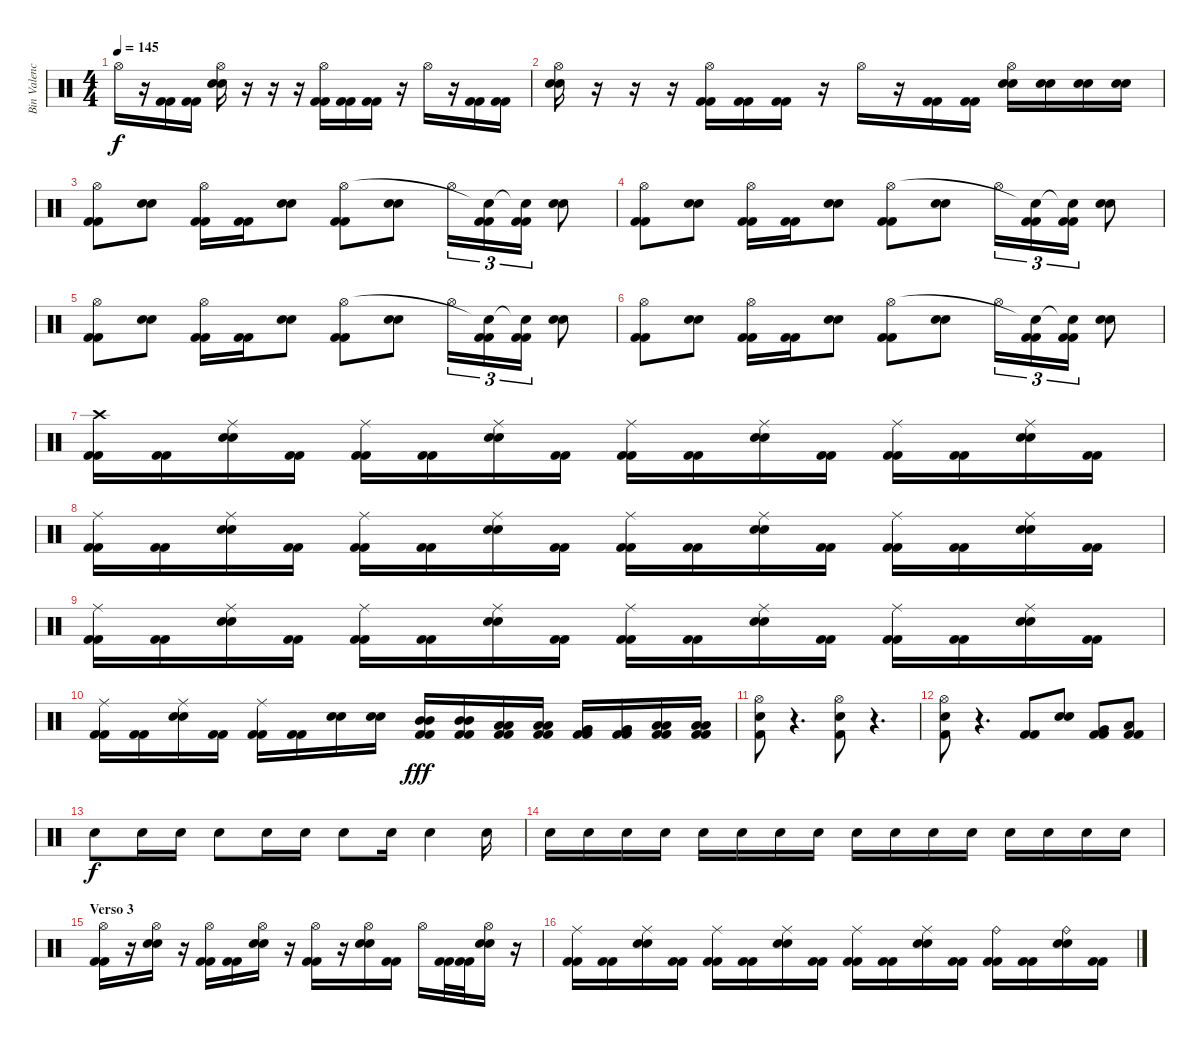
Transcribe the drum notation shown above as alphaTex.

\track ("Bin Valencia (Bateria)" "Bin Valenc") {instrument percussion}
\staff {score}
\articulation defaults
\ts (4 4)
\tempo 145
\clef neutral
\ks c "Hi-Hat (open)".16{dy f}
r.16 ("Kick (hit) 2" "Kick (hit) 2").16 ("Kick (hit) 2" "Kick (hit) 2").16 ("Snare (hit) 2" "Snare (hit) 2" "Hi-Hat (open)").16 r.16 r.16 r.16 ("Kick (hit) 2" "Kick (hit) 2" "Hi-Hat (open)").16 ("Kick (hit) 2" "Kick (hit) 2").16 ("Kick (hit) 2" "Kick (hit) 2").16 r.16 "Hi-Hat (open)".16 r.16 ("Kick (hit) 2" "Kick (hit) 2").16 ("Kick (hit) 2" "Kick (hit) 2").16 |
("Snare (hit) 2" "Snare (hit) 2" "Hi-Hat (open)").16 r.16 r.16 r.16 ("Kick (hit) 2" "Kick (hit) 2" "Hi-Hat (open)").16 ("Kick (hit) 2" "Kick (hit) 2").16 ("Kick (hit) 2" "Kick (hit) 2").16 r.16 "Hi-Hat (open)".16 r.16 ("Kick (hit) 2" "Kick (hit) 2").16 ("Kick (hit) 2" "Kick (hit) 2").16 ("Snare (hit) 2" "Snare (hit) 2" "Hi-Hat (open)").16 ("Snare (hit) 2" "Snare (hit) 2").16 ("Snare (hit) 2" "Snare (hit) 2").16 ("Snare (hit) 2" "Snare (hit) 2").16 |
("Kick (hit) 2" "Kick (hit) 2" "Hi-Hat (open)").8 ("Snare (hit) 2" "Snare (hit) 2").8 ("Kick (hit) 2" "Kick (hit) 2" "Hi-Hat (open)").16 ("Kick (hit) 2" "Kick (hit) 2").16 ("Snare (hit) 2" "Snare (hit) 2").8 ("Kick (hit) 2" "Kick (hit) 2" "Hi-Hat (open)").8 ("Snare (hit) 2" "Snare (hit) 2").8 "Hi-Hat (open)".16{tu (3 2)} ("Kick (hit) 2" "Kick (hit) 2" "Snare (hit)"{t}).16{tu (3 2)} ("Kick (hit) 2" "Kick (hit) 2" "Snare (hit)"{t}).16{tu (3 2)} ("Snare (hit) 2" "Snare (hit) 2").8 |
("Kick (hit) 2" "Kick (hit) 2" "Hi-Hat (open)").8 ("Snare (hit) 2" "Snare (hit) 2").8 ("Kick (hit) 2" "Kick (hit) 2" "Hi-Hat (open)").16 ("Kick (hit) 2" "Kick (hit) 2").16 ("Snare (hit) 2" "Snare (hit) 2").8 ("Kick (hit) 2" "Kick (hit) 2" "Hi-Hat (open)").8 ("Snare (hit) 2" "Snare (hit) 2").8 "Hi-Hat (open)".16{tu (3 2)} ("Kick (hit) 2" "Kick (hit) 2" "Snare (hit)"{t}).16{tu (3 2)} ("Kick (hit) 2" "Kick (hit) 2" "Snare (hit)"{t}).16{tu (3 2)} ("Snare (hit) 2" "Snare (hit) 2").8 |
("Kick (hit) 2" "Kick (hit) 2" "Hi-Hat (open)").8 ("Snare (hit) 2" "Snare (hit) 2").8 ("Kick (hit) 2" "Kick (hit) 2" "Hi-Hat (open)").16 ("Kick (hit) 2" "Kick (hit) 2").16 ("Snare (hit) 2" "Snare (hit) 2").8 ("Kick (hit) 2" "Kick (hit) 2" "Hi-Hat (open)").8 ("Snare (hit) 2" "Snare (hit) 2").8 "Hi-Hat (open)".16{tu (3 2)} ("Kick (hit) 2" "Kick (hit) 2" "Snare (hit)"{t}).16{tu (3 2)} ("Kick (hit) 2" "Kick (hit) 2" "Snare (hit)"{t}).16{tu (3 2)} ("Snare (hit) 2" "Snare (hit) 2").8 |
("Kick (hit) 2" "Kick (hit) 2" "Hi-Hat (open)").8 ("Snare (hit) 2" "Snare (hit) 2").8 ("Kick (hit) 2" "Kick (hit) 2" "Hi-Hat (open)").16 ("Kick (hit) 2" "Kick (hit) 2").16 ("Snare (hit) 2" "Snare (hit) 2").8 ("Kick (hit) 2" "Kick (hit) 2" "Hi-Hat (open)").8 ("Snare (hit) 2" "Snare (hit) 2").8 "Hi-Hat (open)".16{tu (3 2)} ("Kick (hit) 2" "Kick (hit) 2" "Snare (hit)"{t}).16{tu (3 2)} ("Kick (hit) 2" "Kick (hit) 2" "Snare (hit)"{t}).16{tu (3 2)} ("Snare (hit) 2" "Snare (hit) 2").8 |
("Kick (hit) 2" "Kick (hit) 2" "Crash high (hit)").16 ("Kick (hit) 2" "Kick (hit) 2").16 ("Snare (hit) 2" "Snare (hit) 2" "Ride (middle)").16 ("Kick (hit) 2" "Kick (hit) 2").16 ("Kick (hit) 2" "Kick (hit) 2" "Ride (middle)").16 ("Kick (hit) 2" "Kick (hit) 2").16 ("Snare (hit) 2" "Snare (hit) 2" "Ride (middle)").16 ("Kick (hit) 2" "Kick (hit) 2").16 ("Kick (hit) 2" "Kick (hit) 2" "Ride (middle)").16 ("Kick (hit) 2" "Kick (hit) 2").16 ("Snare (hit) 2" "Snare (hit) 2" "Ride (middle)").16 ("Kick (hit) 2" "Kick (hit) 2").16 ("Kick (hit) 2" "Kick (hit) 2" "Ride (middle)").16 ("Kick (hit) 2" "Kick (hit) 2").16 ("Snare (hit) 2" "Snare (hit) 2" "Ride (middle)").16 ("Kick (hit) 2" "Kick (hit) 2").16 |
("Kick (hit) 2" "Kick (hit) 2" "Ride (middle)").16 ("Kick (hit) 2" "Kick (hit) 2").16 ("Snare (hit) 2" "Snare (hit) 2" "Ride (middle)").16 ("Kick (hit) 2" "Kick (hit) 2").16 ("Kick (hit) 2" "Kick (hit) 2" "Ride (middle)").16 ("Kick (hit) 2" "Kick (hit) 2").16 ("Snare (hit) 2" "Snare (hit) 2" "Ride (middle)").16 ("Kick (hit) 2" "Kick (hit) 2").16 ("Kick (hit) 2" "Kick (hit) 2" "Ride (middle)").16 ("Kick (hit) 2" "Kick (hit) 2").16 ("Snare (hit) 2" "Snare (hit) 2" "Ride (middle)").16 ("Kick (hit) 2" "Kick (hit) 2").16 ("Kick (hit) 2" "Kick (hit) 2" "Ride (middle)").16 ("Kick (hit) 2" "Kick (hit) 2").16 ("Snare (hit) 2" "Snare (hit) 2" "Ride (middle)").16 ("Kick (hit) 2" "Kick (hit) 2").16 |
("Kick (hit) 2" "Kick (hit) 2" "Ride (middle)").16 ("Kick (hit) 2" "Kick (hit) 2").16 ("Snare (hit) 2" "Snare (hit) 2" "Ride (middle)").16 ("Kick (hit) 2" "Kick (hit) 2").16 ("Kick (hit) 2" "Kick (hit) 2" "Ride (middle)").16 ("Kick (hit) 2" "Kick (hit) 2").16 ("Snare (hit) 2" "Snare (hit) 2" "Ride (middle)").16 ("Kick (hit) 2" "Kick (hit) 2").16 ("Kick (hit) 2" "Kick (hit) 2" "Ride (middle)").16 ("Kick (hit) 2" "Kick (hit) 2").16 ("Snare (hit) 2" "Snare (hit) 2" "Ride (middle)").16 ("Kick (hit) 2" "Kick (hit) 2").16 ("Kick (hit) 2" "Kick (hit) 2" "Ride (middle)").16 ("Kick (hit) 2" "Kick (hit) 2").16 ("Snare (hit) 2" "Snare (hit) 2" "Ride (middle)").16 ("Kick (hit) 2" "Kick (hit) 2").16 |
("Kick (hit) 2" "Kick (hit) 2" "Ride (middle)").16 ("Kick (hit) 2" "Kick (hit) 2").16 ("Snare (hit) 2" "Snare (hit) 2" "Ride (middle)").16 ("Kick (hit) 2" "Kick (hit) 2").16 ("Kick (hit) 2" "Kick (hit) 2" "Ride (middle)").16 ("Kick (hit) 2" "Kick (hit) 2").16 ("Snare (hit) 2" "Snare (hit) 2").16 ("Snare (hit) 2" "Snare (hit) 2").16 ("Kick (hit) 2" "Kick (hit) 2" "Mid Tom (hit)" "Mid Tom (hit)").16{dy fff} ("Kick (hit) 2" "Kick (hit) 2" "Mid Tom (hit)" "Mid Tom (hit)").16 ("Kick (hit) 2" "Kick (hit) 2" "Low Tom (hit)" "Low Tom (hit)").16 ("Kick (hit) 2" "Kick (hit) 2" "Low Tom (hit)" "Low Tom (hit)").16 ("Kick (hit) 2" "Kick (hit) 2" "Very Low Tom (hit)" "Very Low Tom (hit)").16 ("Kick (hit) 2" "Kick (hit) 2" "Very Low Tom (hit)" "Very Low Tom (hit)").16 ("Kick (hit) 2" "Kick (hit) 2" "Low Floor Tom (hit)" "Low Floor Tom (hit)").16 ("Kick (hit) 2" "Kick (hit) 2" "Low Floor Tom (hit)" "Low Floor Tom (hit)").16 |
("Hi-Hat (open)" "Snare (hit) 2" "Kick (hit) 2").8 r.4{d} ("Hi-Hat (open)" "Snare (hit) 2" "Kick (hit) 2").8 r.4{d} |
("Hi-Hat (open)" "Snare (hit) 2" "Kick (hit) 2").8 r.4{d} ("Kick (hit) 2" "Kick (hit) 2").8 ("Snare (hit) 2" "Snare (hit) 2").8 ("Very Low Tom (hit)" "Kick (hit) 2" "Kick (hit) 2").8 ("Low Tom (hit)" "Kick (hit) 2" "Kick (hit) 2").8 |
"Snare (hit) 2".8{dy f} "Snare (hit) 2".16 "Snare (hit) 2".16 "Snare (hit) 2".8 "Snare (hit) 2".16 "Snare (hit) 2".16 "Snare (hit) 2".8 "Snare (hit) 2".16 "Snare (hit) 2".4 "Snare (hit) 2".16 |
"Snare (hit) 2".16 "Snare (hit) 2".16 "Snare (hit) 2".16 "Snare (hit) 2".16 "Snare (hit) 2".16 "Snare (hit) 2".16 "Snare (hit) 2".16 "Snare (hit) 2".16 "Snare (hit) 2".16 "Snare (hit) 2".16 "Snare (hit) 2".16 "Snare (hit) 2".16 "Snare (hit) 2".16 "Snare (hit) 2".16 "Snare (hit) 2".16 "Snare (hit) 2".16 |
\section ("" "Verso 3")
("Hi-Hat (open)" "Kick (hit) 2" "Kick (hit) 2").16 r.16 ("Hi-Hat (open)" "Snare (hit) 2" "Snare (hit) 2").16 r.16 ("Hi-Hat (open)" "Kick (hit) 2" "Kick (hit) 2").16 ("Kick (hit) 2" "Kick (hit) 2").16 ("Hi-Hat (open)" "Snare (hit) 2" "Snare (hit) 2").16 r.16 ("Hi-Hat (open)" "Kick (hit) 2" "Kick (hit) 2").16 r.16 ("Hi-Hat (open)" "Snare (hit) 2" "Snare (hit) 2").16 ("Kick (hit) 2" "Kick (hit) 2").16 "Hi-Hat (open)".16 ("Kick (hit) 2" "Kick (hit) 2").32 ("Kick (hit) 2" "Kick (hit) 2").32 ("Hi-Hat (open)" "Snare (hit) 2" "Snare (hit) 2").16 r.16 |
("Ride (middle)" "Kick (hit) 2" "Kick (hit) 2").16 ("Kick (hit) 2" "Kick (hit) 2").16 ("Ride (middle)" "Snare (hit) 2" "Snare (hit) 2").16 ("Kick (hit) 2" "Kick (hit) 2").16 ("Ride (middle)" "Kick (hit) 2" "Kick (hit) 2").16 ("Kick (hit) 2" "Kick (hit) 2").16 ("Ride (middle)" "Snare (hit) 2" "Snare (hit) 2").16 ("Kick (hit) 2" "Kick (hit) 2").16 ("Ride (middle)" "Kick (hit) 2" "Kick (hit) 2").16 ("Kick (hit) 2" "Kick (hit) 2").16 ("Ride (middle)" "Snare (hit) 2" "Snare (hit) 2").16 ("Kick (hit) 2" "Kick (hit) 2").16 ("Ride (bell)" "Kick (hit) 2" "Kick (hit) 2").16 ("Kick (hit) 2" "Kick (hit) 2").16 ("Ride (bell)" "Snare (hit) 2" "Snare (hit) 2").16 ("Kick (hit) 2" "Kick (hit) 2").16
